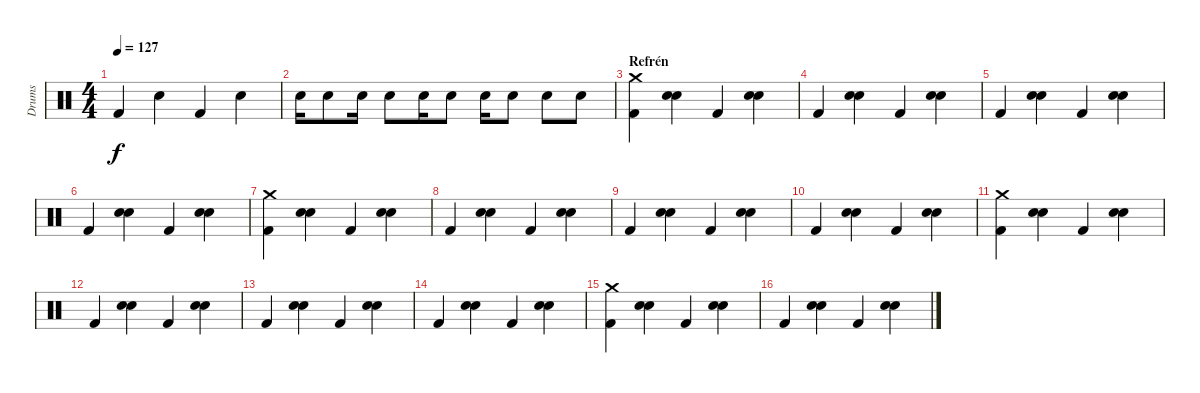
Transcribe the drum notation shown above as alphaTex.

\track ("Drums" "Drums") {instrument percussion}
\staff {score}
\articulation defaults
\ts (4 4)
\tempo 127
\clef neutral
\ks c "Kick (hit) 2".4{dy f} "Electric Snare (hit)".4 "Kick (hit) 2".4 "Electric Snare (hit)".4
|
"Electric Snare (hit)".16 "Electric Snare (hit)".8 "Electric Snare (hit)".16 "Electric Snare (hit)".8 "Electric Snare (hit)".16 "Electric Snare (hit)".8 "Electric Snare (hit)".16 "Electric Snare (hit)".8 "Electric Snare (hit)".8 "Electric Snare (hit)".8 |
\section ("" "Refrén")
("Kick (hit) 2" "Crash medium (hit)").4 ("Electric Snare (hit)" "Hand Clap (hit)").4 "Kick (hit) 2".4 ("Electric Snare (hit)" "Hand Clap (hit)").4 |
"Kick (hit) 2".4 ("Electric Snare (hit)" "Hand Clap (hit)").4 "Kick (hit) 2".4 ("Electric Snare (hit)" "Hand Clap (hit)").4 |
"Kick (hit) 2".4 ("Electric Snare (hit)" "Hand Clap (hit)").4 "Kick (hit) 2".4 ("Electric Snare (hit)" "Hand Clap (hit)").4 |
"Kick (hit) 2".4 ("Electric Snare (hit)" "Hand Clap (hit)").4 "Kick (hit) 2".4 ("Electric Snare (hit)" "Hand Clap (hit)").4 |
("Kick (hit) 2" "Crash medium (hit)").4 ("Electric Snare (hit)" "Hand Clap (hit)").4 "Kick (hit) 2".4 ("Electric Snare (hit)" "Hand Clap (hit)").4 |
"Kick (hit) 2".4 ("Electric Snare (hit)" "Hand Clap (hit)").4 "Kick (hit) 2".4 ("Electric Snare (hit)" "Hand Clap (hit)").4 |
"Kick (hit) 2".4 ("Electric Snare (hit)" "Hand Clap (hit)").4 "Kick (hit) 2".4 ("Electric Snare (hit)" "Hand Clap (hit)").4 |
"Kick (hit) 2".4 ("Electric Snare (hit)" "Hand Clap (hit)").4 "Kick (hit) 2".4 ("Electric Snare (hit)" "Hand Clap (hit)").4 |
("Kick (hit) 2" "Crash medium (hit)").4 ("Electric Snare (hit)" "Hand Clap (hit)").4 "Kick (hit) 2".4 ("Electric Snare (hit)" "Hand Clap (hit)").4 |
"Kick (hit) 2".4 ("Electric Snare (hit)" "Hand Clap (hit)").4 "Kick (hit) 2".4 ("Electric Snare (hit)" "Hand Clap (hit)").4 |
"Kick (hit) 2".4 ("Electric Snare (hit)" "Hand Clap (hit)").4 "Kick (hit) 2".4 ("Electric Snare (hit)" "Hand Clap (hit)").4 |
"Kick (hit) 2".4 ("Electric Snare (hit)" "Hand Clap (hit)").4 "Kick (hit) 2".4 ("Electric Snare (hit)" "Hand Clap (hit)").4 |
("Kick (hit) 2" "Crash medium (hit)").4 ("Electric Snare (hit)" "Hand Clap (hit)").4 "Kick (hit) 2".4 ("Electric Snare (hit)" "Hand Clap (hit)").4 |
"Kick (hit) 2".4 ("Electric Snare (hit)" "Hand Clap (hit)").4 "Kick (hit) 2".4 ("Electric Snare (hit)" "Hand Clap (hit)").4
